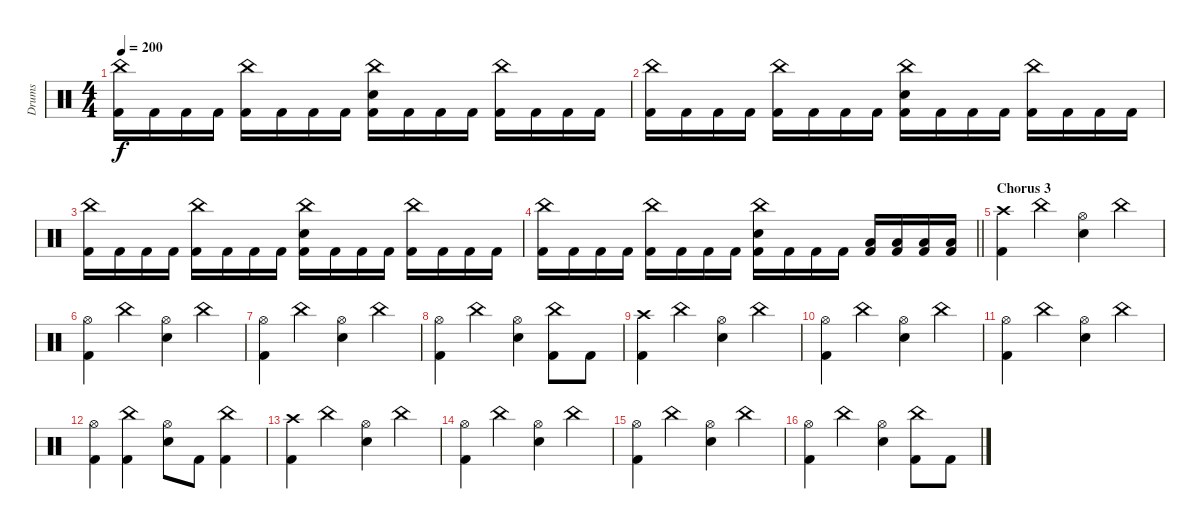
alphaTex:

\track ("Drums" "Drums") {instrument percussion}
\staff {score}
\articulation defaults
\ts (4 4)
\tempo 200
\clef neutral
\ks c
("China (hit)" "Kick (hit) 2").16{dy f} "Kick (hit) 2".16 "Kick (hit) 2".16 "Kick (hit) 2".16 ("China (hit)" "Kick (hit) 2").16 "Kick (hit) 2".16 "Kick (hit) 2".16 "Kick (hit) 2".16 ("China (hit)" "Electric Snare (hit)" "Kick (hit) 2").16 "Kick (hit) 2".16 "Kick (hit) 2".16 "Kick (hit) 2".16 ("China (hit)" "Kick (hit) 2").16 "Kick (hit) 2".16 "Kick (hit) 2".16 "Kick (hit) 2".16 |
("China (hit)" "Kick (hit) 2").16 "Kick (hit) 2".16 "Kick (hit) 2".16 "Kick (hit) 2".16 ("China (hit)" "Kick (hit) 2").16 "Kick (hit) 2".16 "Kick (hit) 2".16 "Kick (hit) 2".16 ("China (hit)" "Electric Snare (hit)" "Kick (hit) 2").16 "Kick (hit) 2".16 "Kick (hit) 2".16 "Kick (hit) 2".16 ("China (hit)" "Kick (hit) 2").16 "Kick (hit) 2".16 "Kick (hit) 2".16 "Kick (hit) 2".16 |
("China (hit)" "Kick (hit) 2").16 "Kick (hit) 2".16 "Kick (hit) 2".16 "Kick (hit) 2".16 ("China (hit)" "Kick (hit) 2").16 "Kick (hit) 2".16 "Kick (hit) 2".16 "Kick (hit) 2".16 ("China (hit)" "Electric Snare (hit)" "Kick (hit) 2").16 "Kick (hit) 2".16 "Kick (hit) 2".16 "Kick (hit) 2".16 ("China (hit)" "Kick (hit) 2").16 "Kick (hit) 2".16 "Kick (hit) 2".16 "Kick (hit) 2".16 |
\barLineRight lightlight
("China (hit)" "Kick (hit) 2").16 "Kick (hit) 2".16 "Kick (hit) 2".16 "Kick (hit) 2".16 ("China (hit)" "Kick (hit) 2").16 "Kick (hit) 2".16 "Kick (hit) 2".16 "Kick (hit) 2".16 ("China (hit)" "Electric Snare (hit)" "Kick (hit) 2").16 "Kick (hit) 2".16 "Kick (hit) 2".16 "Kick (hit) 2".16 ("Low Tom (hit)" "Kick (hit) 2").16 ("Low Tom (hit)" "Kick (hit) 2").16 ("Low Tom (hit)" "Kick (hit) 2").16 ("Low Tom (hit)" "Kick (hit) 2").16 |
\section ("" "Chorus 3")
("Crash high (hit)" "Kick (hit) 2").4 "China (hit)".4 ("Hi-Hat (open)" "Electric Snare (hit)").4 "China (hit)".4 |
("Hi-Hat (open)" "Kick (hit) 2").4 "China (hit)".4 ("Hi-Hat (open)" "Electric Snare (hit)").4 "China (hit)".4 |
("Hi-Hat (open)" "Kick (hit) 2").4 "China (hit)".4 ("Hi-Hat (open)" "Electric Snare (hit)").4 "China (hit)".4 |
("Hi-Hat (open)" "Kick (hit) 2").4 "China (hit)".4 ("Hi-Hat (open)" "Electric Snare (hit)").4 ("China (hit)" "Kick (hit) 2").8 "Kick (hit) 2".8 |
("Crash high (hit)" "Kick (hit) 2").4 "China (hit)".4 ("Hi-Hat (open)" "Electric Snare (hit)").4 "China (hit)".4 |
("Hi-Hat (open)" "Kick (hit) 2").4 "China (hit)".4 ("Hi-Hat (open)" "Electric Snare (hit)").4 "China (hit)".4 |
("Hi-Hat (open)" "Kick (hit) 2").4 "China (hit)".4 ("Hi-Hat (open)" "Electric Snare (hit)").4 "China (hit)".4 |
("Hi-Hat (open)" "Kick (hit) 2").4 ("China (hit)" "Kick (hit) 2").4 ("Hi-Hat (open)" "Electric Snare (hit)").8 "Kick (hit) 2".8 ("China (hit)" "Kick (hit) 2").4 |
("Crash high (hit)" "Kick (hit) 2").4 "China (hit)".4 ("Hi-Hat (open)" "Electric Snare (hit)").4 "China (hit)".4 |
("Hi-Hat (open)" "Kick (hit) 2").4 "China (hit)".4 ("Hi-Hat (open)" "Electric Snare (hit)").4 "China (hit)".4 |
("Hi-Hat (open)" "Kick (hit) 2").4 "China (hit)".4 ("Hi-Hat (open)" "Electric Snare (hit)").4 "China (hit)".4 |
("Hi-Hat (open)" "Kick (hit) 2").4 "China (hit)".4 ("Hi-Hat (open)" "Electric Snare (hit)").4 ("China (hit)" "Kick (hit) 2").8 "Kick (hit) 2".8
